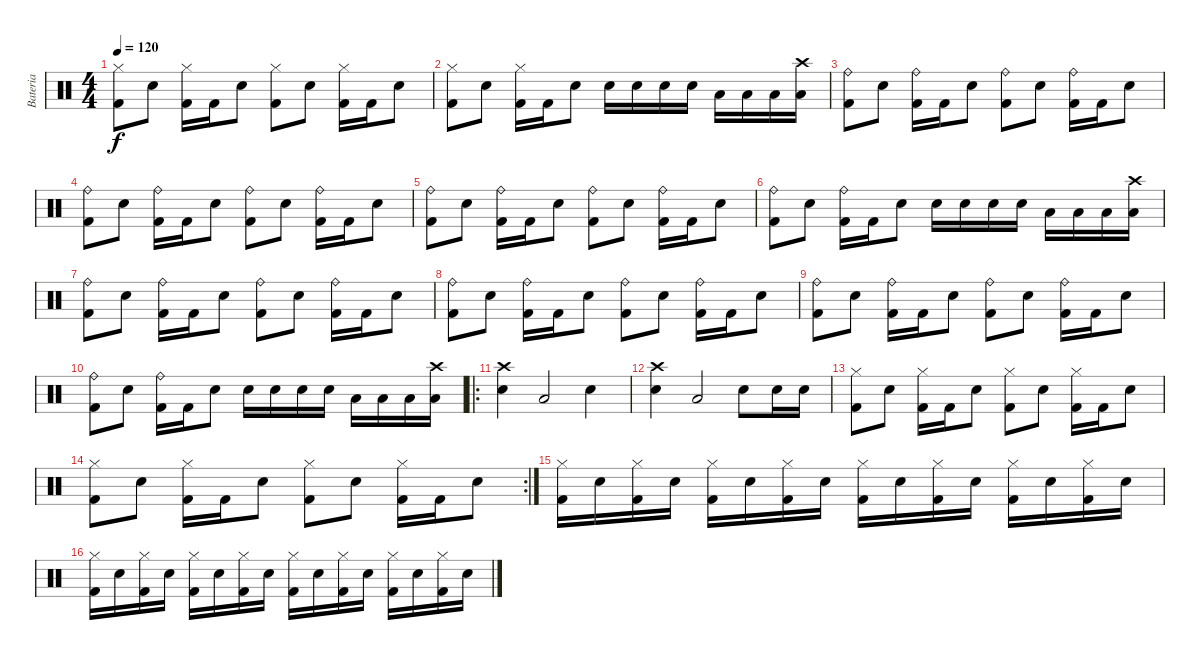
\track ("Bateria" "Bateria") {instrument percussion}
\staff {score}
\articulation defaults
\ts (4 4)
\tempo 120
\clef neutral
\ks c
("Kick (hit) 2" "Hi-Hat (closed)").8{dy f} "Electric Snare (hit)".8 ("Kick (hit) 2" "Hi-Hat (closed)").16 "Kick (hit) 2".16 "Electric Snare (hit)".8 ("Kick (hit) 2" "Hi-Hat (closed)").8 "Electric Snare (hit)".8 ("Kick (hit) 2" "Hi-Hat (closed)").16 "Kick (hit) 2".16 "Electric Snare (hit)".8 |
("Kick (hit) 2" "Hi-Hat (closed)").8 "Electric Snare (hit)".8 ("Kick (hit) 2" "Hi-Hat (closed)").16 "Kick (hit) 2".16 "Electric Snare (hit)".8 "Electric Snare (hit)".16 "Electric Snare (hit)".16 "Electric Snare (hit)".16 "Electric Snare (hit)".16 "Low Floor Tom (hit)".16 "Low Floor Tom (hit)".16 "Low Floor Tom (hit)".16 ("Low Floor Tom (hit)" "Crash high (hit)").16 |
("Kick (hit) 2" "Ride (bell)").8 "Electric Snare (hit)".8 ("Kick (hit) 2" "Ride (bell)").16 "Kick (hit) 2".16 "Electric Snare (hit)".8 ("Kick (hit) 2" "Ride (bell)").8 "Electric Snare (hit)".8 ("Kick (hit) 2" "Ride (bell)").16 "Kick (hit) 2".16 "Electric Snare (hit)".8 |
("Kick (hit) 2" "Ride (bell)").8 "Electric Snare (hit)".8 ("Kick (hit) 2" "Ride (bell)").16 "Kick (hit) 2".16 "Electric Snare (hit)".8 ("Kick (hit) 2" "Ride (bell)").8 "Electric Snare (hit)".8 ("Kick (hit) 2" "Ride (bell)").16 "Kick (hit) 2".16 "Electric Snare (hit)".8 |
("Kick (hit) 2" "Ride (bell)").8 "Electric Snare (hit)".8 ("Kick (hit) 2" "Ride (bell)").16 "Kick (hit) 2".16 "Electric Snare (hit)".8 ("Kick (hit) 2" "Ride (bell)").8 "Electric Snare (hit)".8 ("Kick (hit) 2" "Ride (bell)").16 "Kick (hit) 2".16 "Electric Snare (hit)".8 |
("Kick (hit) 2" "Ride (bell)").8 "Electric Snare (hit)".8 ("Kick (hit) 2" "Ride (bell)").16 "Kick (hit) 2".16 "Electric Snare (hit)".8 "Electric Snare (hit)".16 "Electric Snare (hit)".16 "Electric Snare (hit)".16 "Electric Snare (hit)".16 "Low Floor Tom (hit)".16 "Low Floor Tom (hit)".16 "Low Floor Tom (hit)".16 ("Low Floor Tom (hit)" "Crash high (hit)").16 |
("Kick (hit) 2" "Ride (bell)").8 "Electric Snare (hit)".8 ("Kick (hit) 2" "Ride (bell)").16 "Kick (hit) 2".16 "Electric Snare (hit)".8 ("Kick (hit) 2" "Ride (bell)").8 "Electric Snare (hit)".8 ("Kick (hit) 2" "Ride (bell)").16 "Kick (hit) 2".16 "Electric Snare (hit)".8 |
("Kick (hit) 2" "Ride (bell)").8 "Electric Snare (hit)".8 ("Kick (hit) 2" "Ride (bell)").16 "Kick (hit) 2".16 "Electric Snare (hit)".8 ("Kick (hit) 2" "Ride (bell)").8 "Electric Snare (hit)".8 ("Kick (hit) 2" "Ride (bell)").16 "Kick (hit) 2".16 "Electric Snare (hit)".8 |
("Kick (hit) 2" "Ride (bell)").8 "Electric Snare (hit)".8 ("Kick (hit) 2" "Ride (bell)").16 "Kick (hit) 2".16 "Electric Snare (hit)".8 ("Kick (hit) 2" "Ride (bell)").8 "Electric Snare (hit)".8 ("Kick (hit) 2" "Ride (bell)").16 "Kick (hit) 2".16 "Electric Snare (hit)".8 |
("Kick (hit) 2" "Ride (bell)").8 "Electric Snare (hit)".8 ("Kick (hit) 2" "Ride (bell)").16 "Kick (hit) 2".16 "Electric Snare (hit)".8 "Electric Snare (hit)".16 "Electric Snare (hit)".16 "Electric Snare (hit)".16 "Electric Snare (hit)".16 "Low Floor Tom (hit)".16 "Low Floor Tom (hit)".16 "Low Floor Tom (hit)".16 ("Low Floor Tom (hit)" "Crash high (hit)").16 |
\ro
("Electric Snare (hit)" "Crash high (hit)").4 "Low Floor Tom (hit)".2 "Electric Snare (hit)".4 |
("Electric Snare (hit)" "Crash high (hit)").4 "Low Floor Tom (hit)".2 "Electric Snare (hit)".8 "Electric Snare (hit)".16 "Electric Snare (hit)".16 |
("Kick (hit) 2" "Hi-Hat (closed)").8 "Electric Snare (hit)".8 ("Kick (hit) 2" "Hi-Hat (closed)").16 "Kick (hit) 2".16 "Electric Snare (hit)".8 ("Kick (hit) 2" "Hi-Hat (closed)").8 "Electric Snare (hit)".8 ("Kick (hit) 2" "Hi-Hat (closed)").16 "Kick (hit) 2".16 "Electric Snare (hit)".8 |
\rc 2
("Kick (hit) 2" "Hi-Hat (closed)").8 "Electric Snare (hit)".8 ("Kick (hit) 2" "Hi-Hat (closed)").16 "Kick (hit) 2".16 "Electric Snare (hit)".8 ("Kick (hit) 2" "Hi-Hat (closed)").8 "Electric Snare (hit)".8 ("Kick (hit) 2" "Hi-Hat (closed)").16 "Kick (hit) 2".16 "Electric Snare (hit)".8 |
("Kick (hit) 2" "Hi-Hat (closed)").16 "Electric Snare (hit)".16 ("Kick (hit) 2" "Hi-Hat (closed)").16 "Electric Snare (hit)".16 ("Kick (hit) 2" "Hi-Hat (closed)").16 "Electric Snare (hit)".16 ("Kick (hit) 2" "Hi-Hat (closed)").16 "Electric Snare (hit)".16 ("Kick (hit) 2" "Hi-Hat (closed)").16 "Electric Snare (hit)".16 ("Kick (hit) 2" "Hi-Hat (closed)").16 "Electric Snare (hit)".16 ("Kick (hit) 2" "Hi-Hat (closed)").16 "Electric Snare (hit)".16 ("Kick (hit) 2" "Hi-Hat (closed)").16 "Electric Snare (hit)".16 |
("Kick (hit) 2" "Hi-Hat (closed)").16 "Electric Snare (hit)".16 ("Kick (hit) 2" "Hi-Hat (closed)").16 "Electric Snare (hit)".16 ("Kick (hit) 2" "Hi-Hat (closed)").16 "Electric Snare (hit)".16 ("Kick (hit) 2" "Hi-Hat (closed)").16 "Electric Snare (hit)".16 ("Kick (hit) 2" "Hi-Hat (closed)").16 "Electric Snare (hit)".16 ("Kick (hit) 2" "Hi-Hat (closed)").16 "Electric Snare (hit)".16 ("Kick (hit) 2" "Hi-Hat (closed)").16 "Electric Snare (hit)".16 ("Kick (hit) 2" "Hi-Hat (closed)").16 "Electric Snare (hit)".16
